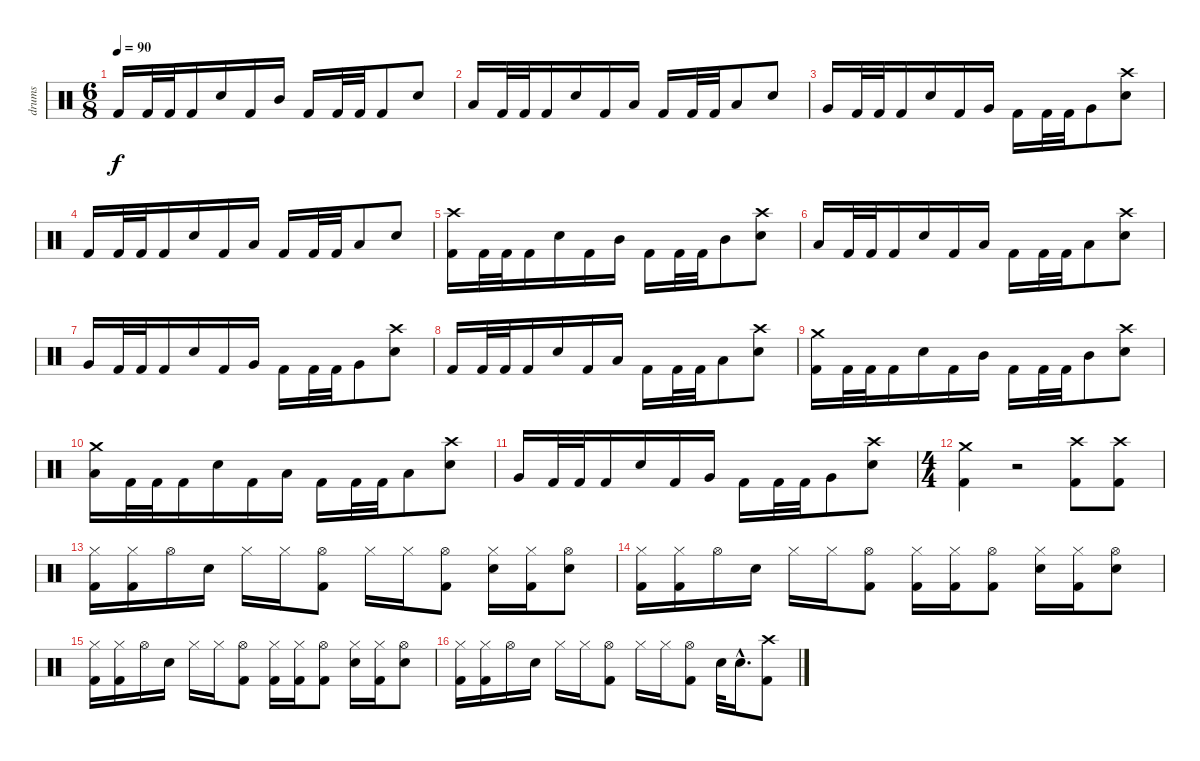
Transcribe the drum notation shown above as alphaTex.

\track ("drums" "drums") {instrument percussion}
\staff {score}
\articulation defaults
\ts (6 8)
\tempo 90
\clef neutral
\ks c "Kick (hit) 2".16{dy f} "Kick (hit) 2".32 "Kick (hit) 2".32 "Kick (hit) 2".16 "Electric Snare (hit)".16 "Kick (hit) 2".16 "Mid Tom (hit)".16 "Kick (hit) 2".16 "Kick (hit) 2".32 "Kick (hit) 2".32 "Kick (hit) 2".8 "Electric Snare (hit)".8
|
"Low Tom (hit)".16 "Kick (hit) 2".32 "Kick (hit) 2".32 "Kick (hit) 2".16 "Electric Snare (hit)".16 "Kick (hit) 2".16 "Low Tom (hit)".16 "Kick (hit) 2".16 "Kick (hit) 2".32 "Kick (hit) 2".32 "Low Tom (hit)".8 "Electric Snare (hit)".8 |
"Very Low Tom (hit)".16 "Kick (hit) 2".32 "Kick (hit) 2".32 "Kick (hit) 2".16 "Electric Snare (hit)".16 "Kick (hit) 2".16 "Very Low Tom (hit)".16 "Kick (hit) 2".16 "Kick (hit) 2".32 "Kick (hit) 2".32 "Very Low Tom (hit)".8 ("Crash high (hit)" "Electric Snare (hit)").8 |
"Kick (hit) 2".16 "Kick (hit) 2".32 "Kick (hit) 2".32 "Kick (hit) 2".16 "Electric Snare (hit)".16 "Kick (hit) 2".16 "Low Floor Tom (hit)".16 "Kick (hit) 2".16 "Kick (hit) 2".32 "Kick (hit) 2".32 "Low Floor Tom (hit)".8 "Electric Snare (hit)".8 |
("Crash high (hit)" "Kick (hit) 2").16 "Kick (hit) 2".32 "Kick (hit) 2".32 "Kick (hit) 2".16 "Electric Snare (hit)".16 "Kick (hit) 2".16 "Mid Tom (hit)".16 "Kick (hit) 2".16 "Kick (hit) 2".32 "Kick (hit) 2".32 "Mid Tom (hit)".8 ("Crash high (hit)" "Electric Snare (hit)").8 |
"Low Tom (hit)".16 "Kick (hit) 2".32 "Kick (hit) 2".32 "Kick (hit) 2".16 "Electric Snare (hit)".16 "Kick (hit) 2".16 "Low Tom (hit)".16 "Kick (hit) 2".16 "Kick (hit) 2".32 "Kick (hit) 2".32 "Low Tom (hit)".8 ("Crash high (hit)" "Electric Snare (hit)").8 |
"Very Low Tom (hit)".16 "Kick (hit) 2".32 "Kick (hit) 2".32 "Kick (hit) 2".16 "Electric Snare (hit)".16 "Kick (hit) 2".16 "Very Low Tom (hit)".16 "Kick (hit) 2".16 "Kick (hit) 2".32 "Kick (hit) 2".32 "Very Low Tom (hit)".8 ("Crash high (hit)" "Electric Snare (hit)").8 |
"Kick (hit) 2".16 "Kick (hit) 2".32 "Kick (hit) 2".32 "Kick (hit) 2".16 "Electric Snare (hit)".16 "Kick (hit) 2".16 "Low Floor Tom (hit)".16 "Kick (hit) 2".16 "Kick (hit) 2".32 "Kick (hit) 2".32 "Low Floor Tom (hit)".8 ("Crash high (hit)" "Electric Snare (hit)").8 |
("Crash medium (hit)" "Kick (hit) 2").16 "Kick (hit) 2".32 "Kick (hit) 2".32 "Kick (hit) 2".16 "Electric Snare (hit)".16 "Kick (hit) 2".16 "Mid Tom (hit)".16 "Kick (hit) 2".16 "Kick (hit) 2".32 "Kick (hit) 2".32 "Mid Tom (hit)".8 ("Crash high (hit)" "Electric Snare (hit)").8 |
("Crash medium (hit)" "Low Tom (hit)").16 "Kick (hit) 2".32 "Kick (hit) 2".32 "Kick (hit) 2".16 "Electric Snare (hit)".16 "Kick (hit) 2".16 "Low Tom (hit)".16 "Kick (hit) 2".16 "Kick (hit) 2".32 "Kick (hit) 2".32 "Low Tom (hit)".8 ("Crash high (hit)" "Electric Snare (hit)").8 |
"Very Low Tom (hit)".16 "Kick (hit) 2".32 "Kick (hit) 2".32 "Kick (hit) 2".16 "Electric Snare (hit)".16 "Kick (hit) 2".16 "Very Low Tom (hit)".16 "Kick (hit) 2".16 "Kick (hit) 2".32 "Kick (hit) 2".32 "Very Low Tom (hit)".8 ("Crash high (hit)" "Electric Snare (hit)").8 |
\ts (4 4)
("Crash medium (hit)" "Kick (hit) 2").4 r.2 ("Crash high (hit)" "Kick (hit) 2").8 ("Crash high (hit)" "Kick (hit) 2").8 |
("Hi-Hat (closed)" "Kick (hit) 2").16 ("Hi-Hat (closed)" "Kick (hit) 2").16 "Hi-Hat (open)".16 "Electric Snare (hit)".16 "Hi-Hat (closed)".16 "Hi-Hat (closed)".16 ("Hi-Hat (open)" "Kick (hit) 2").8 "Hi-Hat (closed)".16 "Hi-Hat (closed)".16 ("Hi-Hat (open)" "Kick (hit) 2").8 ("Hi-Hat (closed)" "Electric Snare (hit)").16 ("Hi-Hat (closed)" "Kick (hit) 2").16 ("Hi-Hat (open)" "Electric Snare (hit)").8 |
("Hi-Hat (closed)" "Kick (hit) 2").16 ("Hi-Hat (closed)" "Kick (hit) 2").16 "Hi-Hat (open)".16 "Electric Snare (hit)".16 "Hi-Hat (closed)".16 "Hi-Hat (closed)".16 ("Hi-Hat (open)" "Kick (hit) 2").8 ("Hi-Hat (closed)" "Kick (hit) 2").16 ("Hi-Hat (closed)" "Kick (hit) 2").16 ("Hi-Hat (open)" "Kick (hit) 2").8 ("Hi-Hat (closed)" "Electric Snare (hit)").16 ("Hi-Hat (closed)" "Kick (hit) 2").16 ("Hi-Hat (open)" "Electric Snare (hit)").8 |
("Hi-Hat (closed)" "Kick (hit) 2").16 ("Hi-Hat (closed)" "Kick (hit) 2").16 "Hi-Hat (open)".16 "Electric Snare (hit)".16 "Hi-Hat (closed)".16 "Hi-Hat (closed)".16 ("Hi-Hat (open)" "Kick (hit) 2").8 ("Hi-Hat (closed)" "Kick (hit) 2").16 ("Hi-Hat (closed)" "Kick (hit) 2").16 ("Hi-Hat (open)" "Kick (hit) 2").8 ("Hi-Hat (closed)" "Electric Snare (hit)").16 ("Hi-Hat (closed)" "Kick (hit) 2").16 ("Hi-Hat (open)" "Electric Snare (hit)").8 |
("Hi-Hat (closed)" "Kick (hit) 2").16 ("Hi-Hat (closed)" "Kick (hit) 2").16 "Hi-Hat (open)".16 "Electric Snare (hit)".16 "Hi-Hat (closed)".16 "Hi-Hat (closed)".16 ("Hi-Hat (open)" "Kick (hit) 2").8 "Hi-Hat (closed)".16 "Hi-Hat (closed)".16 ("Hi-Hat (open)" "Kick (hit) 2").8 "Electric Snare (hit)".32 "Electric Snare (hit)"{hac}.16{d} ("Crash high (hit)" "Kick (hit) 2").8
